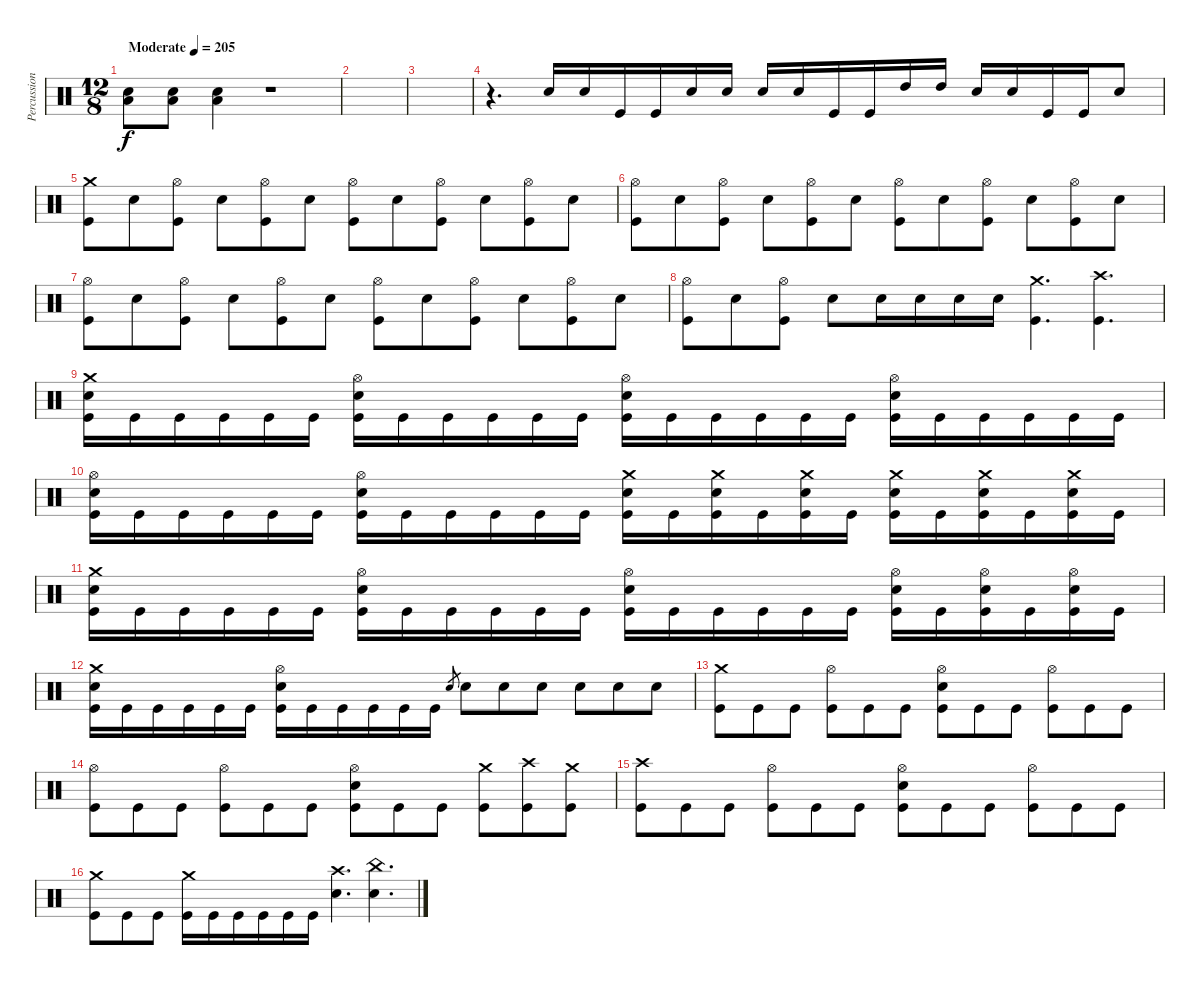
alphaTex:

\track ("Percussion" "Percussion") {instrument percussion}
\staff {score}
\articulation defaults
\ts (12 8)
\tempo (205 "Moderate")
\clef neutral
\ks c
("Low Tom (hit)" "Snare (hit) 2").8{dy f} ("Low Tom (hit)" "Snare (hit) 2").8 ("Low Tom (hit)" "Snare (hit) 2").4 r.1 |
|
|
r.4{d} "Snare (hit) 2".16 "Snare (hit) 2".16 "Kick (hit)".16 "Kick (hit)".16 "Snare (hit) 2".16 "Snare (hit) 2".16 "Snare (hit) 2".16 "Snare (hit) 2".16 "Kick (hit)".16 "Kick (hit)".16 "High Tom (hit)".16 "High Tom (hit)".16 "Snare (hit) 2".16 "Snare (hit) 2".16 "Kick (hit)".16 "Kick (hit)".16 "Snare (hit) 2".8 |
("Crash medium (hit)" "Kick (hit)").8 "Snare (hit) 2".8 ("Hi-Hat (open)" "Kick (hit)").8 "Snare (hit) 2".8 ("Hi-Hat (open)" "Kick (hit)").8 "Snare (hit) 2".8 ("Hi-Hat (open)" "Kick (hit)").8 "Snare (hit) 2".8 ("Hi-Hat (open)" "Kick (hit)").8 "Snare (hit) 2".8 ("Hi-Hat (open)" "Kick (hit)").8 "Snare (hit) 2".8 |
("Hi-Hat (open)" "Kick (hit)").8 "Snare (hit) 2".8 ("Hi-Hat (open)" "Kick (hit)").8 "Snare (hit) 2".8 ("Hi-Hat (open)" "Kick (hit)").8 "Snare (hit) 2".8 ("Hi-Hat (open)" "Kick (hit)").8 "Snare (hit) 2".8 ("Hi-Hat (open)" "Kick (hit)").8 "Snare (hit) 2".8 ("Hi-Hat (open)" "Kick (hit)").8 "Snare (hit) 2".8 |
("Hi-Hat (open)" "Kick (hit)").8 "Snare (hit) 2".8 ("Hi-Hat (open)" "Kick (hit)").8 "Snare (hit) 2".8 ("Hi-Hat (open)" "Kick (hit)").8 "Snare (hit) 2".8 ("Hi-Hat (open)" "Kick (hit)").8 "Snare (hit) 2".8 ("Hi-Hat (open)" "Kick (hit)").8 "Snare (hit) 2".8 ("Hi-Hat (open)" "Kick (hit)").8 "Snare (hit) 2".8 |
("Hi-Hat (open)" "Kick (hit)").8 "Snare (hit) 2".8 ("Hi-Hat (open)" "Kick (hit)").8 "Snare (hit) 2".8 "Snare (hit) 2".16 "Snare (hit) 2".16 "Snare (hit) 2".16 "Snare (hit) 2".16 ("Crash medium (hit)" "Kick (hit)").4{d} ("Crash high (hit)" "Kick (hit)").4{d} |
("Crash medium (hit)" "Snare (hit) 2" "Kick (hit)").16 "Kick (hit)".16 "Kick (hit)".16 "Kick (hit)".16 "Kick (hit)".16 "Kick (hit)".16 ("Hi-Hat (open)" "Snare (hit) 2" "Kick (hit)").16 "Kick (hit)".16 "Kick (hit)".16 "Kick (hit)".16 "Kick (hit)".16 "Kick (hit)".16 ("Hi-Hat (open)" "Snare (hit) 2" "Kick (hit)").16 "Kick (hit)".16 "Kick (hit)".16 "Kick (hit)".16 "Kick (hit)".16 "Kick (hit)".16 ("Hi-Hat (open)" "Snare (hit) 2" "Kick (hit)").16 "Kick (hit)".16 "Kick (hit)".16 "Kick (hit)".16 "Kick (hit)".16 "Kick (hit)".16 |
("Hi-Hat (open)" "Snare (hit) 2" "Kick (hit)").16 "Kick (hit)".16 "Kick (hit)".16 "Kick (hit)".16 "Kick (hit)".16 "Kick (hit)".16 ("Hi-Hat (open)" "Snare (hit) 2" "Kick (hit)").16 "Kick (hit)".16 "Kick (hit)".16 "Kick (hit)".16 "Kick (hit)".16 "Kick (hit)".16 ("Crash medium (hit)" "Snare (hit) 2" "Kick (hit)").16 "Kick (hit)".16 ("Crash medium (hit)" "Snare (hit) 2" "Kick (hit)").16 "Kick (hit)".16 ("Crash medium (hit)" "Snare (hit) 2" "Kick (hit)").16 "Kick (hit)".16 ("Crash medium (hit)" "Snare (hit) 2" "Kick (hit)").16 "Kick (hit)".16 ("Crash medium (hit)" "Snare (hit) 2" "Kick (hit)").16 "Kick (hit)".16 ("Crash medium (hit)" "Snare (hit) 2" "Kick (hit)").16 "Kick (hit)".16 |
("Crash medium (hit)" "Snare (hit) 2" "Kick (hit)").16 "Kick (hit)".16 "Kick (hit)".16 "Kick (hit)".16 "Kick (hit)".16 "Kick (hit)".16 ("Hi-Hat (open)" "Snare (hit) 2" "Kick (hit)").16 "Kick (hit)".16 "Kick (hit)".16 "Kick (hit)".16 "Kick (hit)".16 "Kick (hit)".16 ("Hi-Hat (open)" "Snare (hit) 2" "Kick (hit)").16 "Kick (hit)".16 "Kick (hit)".16 "Kick (hit)".16 "Kick (hit)".16 "Kick (hit)".16 ("Hi-Hat (open)" "Snare (hit) 2" "Kick (hit)").16 "Kick (hit)".16 ("Hi-Hat (open)" "Snare (hit) 2" "Kick (hit)").16 "Kick (hit)".16 ("Hi-Hat (open)" "Snare (hit) 2" "Kick (hit)").16 "Kick (hit)".16 |
("Crash medium (hit)" "Snare (hit) 2" "Kick (hit)").16 "Kick (hit)".16 "Kick (hit)".16 "Kick (hit)".16 "Kick (hit)".16 "Kick (hit)".16 ("Hi-Hat (open)" "Snare (hit) 2" "Kick (hit)").16 "Kick (hit)".16 "Kick (hit)".16 "Kick (hit)".16 "Kick (hit)".16 "Kick (hit)".16 "Snare (hit) 2".8{gr} "Snare (hit) 2".8 "Snare (hit) 2".8 "Snare (hit) 2".8 "Snare (hit) 2".8 "Snare (hit) 2".8 "Snare (hit) 2".8 |
("Crash medium (hit)" "Kick (hit)").8 "Kick (hit)".8 "Kick (hit)".8 ("Hi-Hat (open)" "Kick (hit)").8 "Kick (hit)".8 "Kick (hit)".8 ("Hi-Hat (open)" "Snare (hit) 2" "Kick (hit)").8 "Kick (hit)".8 "Kick (hit)".8 ("Hi-Hat (open)" "Kick (hit)").8 "Kick (hit)".8 "Kick (hit)".8 |
("Hi-Hat (open)" "Kick (hit)").8 "Kick (hit)".8 "Kick (hit)".8 ("Hi-Hat (open)" "Kick (hit)").8 "Kick (hit)".8 "Kick (hit)".8 ("Hi-Hat (open)" "Snare (hit) 2" "Kick (hit)").8 "Kick (hit)".8 "Kick (hit)".8 ("Crash medium (hit)" "Kick (hit)").8 ("Crash high (hit)" "Kick (hit)").8 ("Crash medium (hit)" "Kick (hit)").8 |
("Crash high (hit)" "Kick (hit)").8 "Kick (hit)".8 "Kick (hit)".8 ("Hi-Hat (open)" "Kick (hit)").8 "Kick (hit)".8 "Kick (hit)".8 ("Hi-Hat (open)" "Snare (hit) 2" "Kick (hit)").8 "Kick (hit)".8 "Kick (hit)".8 ("Hi-Hat (open)" "Kick (hit)").8 "Kick (hit)".8 "Kick (hit)".8 |
("Crash medium (hit)" "Kick (hit)").8 "Kick (hit)".8 "Kick (hit)".8 ("Crash medium (hit)" "Kick (hit)").16 "Kick (hit)".16 "Kick (hit)".16 "Kick (hit)".16 "Kick (hit)".16 "Kick (hit)".16 ("Crash high (hit)" "Snare (hit) 2").4{d} ("China (hit)" "Snare (hit) 2").4{d}
